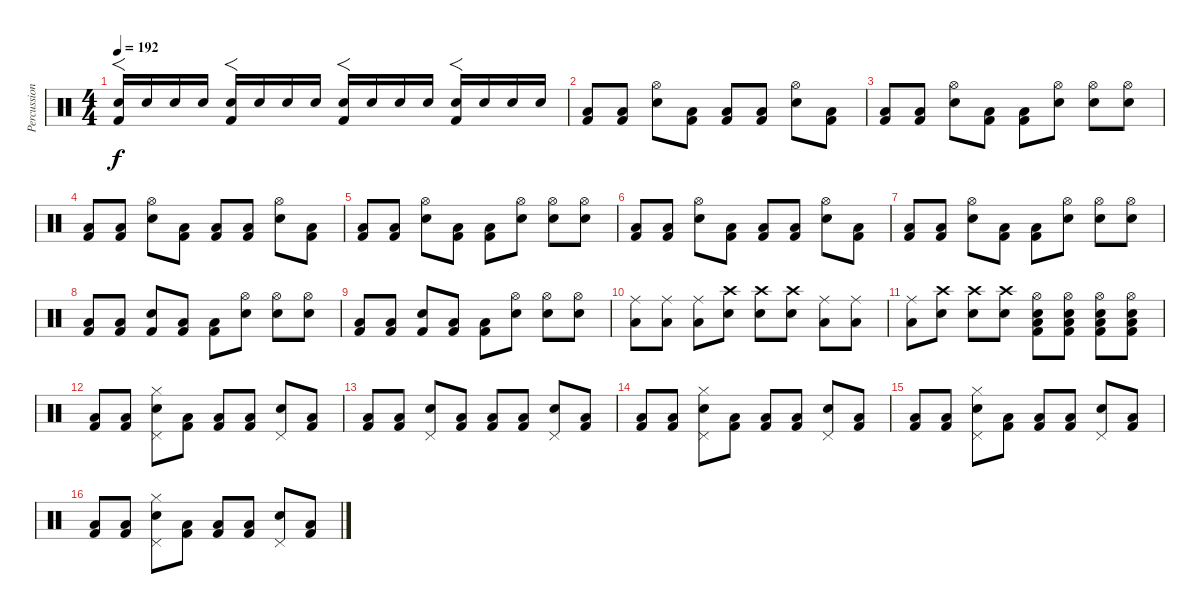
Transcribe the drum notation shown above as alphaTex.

\track ("Percussions" "Percussion") {instrument percussion}
\staff {score}
\articulation defaults
\ts (4 4)
\tempo 192
\clef neutral
\ks c
("Snare (hit) 2" "Kick (hit) 2").16{f dy f} "Snare (hit) 2".16 "Snare (hit) 2".16 "Snare (hit) 2".16 ("Snare (hit) 2" "Kick (hit) 2").16{f} "Snare (hit) 2".16 "Snare (hit) 2".16 "Snare (hit) 2".16 ("Snare (hit) 2" "Kick (hit) 2").16{f} "Snare (hit) 2".16 "Snare (hit) 2".16 "Snare (hit) 2".16 ("Snare (hit) 2" "Kick (hit) 2").16{f} "Snare (hit) 2".16 "Snare (hit) 2".16 "Snare (hit) 2".16 |
("Low Floor Tom (hit)" "Kick (hit) 2").8 ("Low Floor Tom (hit)" "Kick (hit) 2").8 ("Snare (hit) 2" "Hi-Hat (open)").8 ("Low Floor Tom (hit)" "Kick (hit) 2").8 ("Low Floor Tom (hit)" "Kick (hit) 2").8 ("Low Floor Tom (hit)" "Kick (hit) 2").8 ("Snare (hit) 2" "Hi-Hat (open)").8 ("Low Floor Tom (hit)" "Kick (hit) 2").8 |
("Low Floor Tom (hit)" "Kick (hit) 2").8 ("Low Floor Tom (hit)" "Kick (hit) 2").8 ("Snare (hit) 2" "Hi-Hat (open)").8 ("Low Floor Tom (hit)" "Kick (hit) 2").8 ("Low Floor Tom (hit)" "Kick (hit) 2").8 ("Snare (hit) 2" "Hi-Hat (open)").8 ("Snare (hit) 2" "Hi-Hat (open)").8 ("Snare (hit) 2" "Hi-Hat (open)").8 |
("Low Floor Tom (hit)" "Kick (hit) 2").8 ("Low Floor Tom (hit)" "Kick (hit) 2").8 ("Snare (hit) 2" "Hi-Hat (open)").8 ("Low Floor Tom (hit)" "Kick (hit) 2").8 ("Low Floor Tom (hit)" "Kick (hit) 2").8 ("Low Floor Tom (hit)" "Kick (hit) 2").8 ("Snare (hit) 2" "Hi-Hat (open)").8 ("Low Floor Tom (hit)" "Kick (hit) 2").8 |
("Low Floor Tom (hit)" "Kick (hit) 2").8 ("Low Floor Tom (hit)" "Kick (hit) 2").8 ("Snare (hit) 2" "Hi-Hat (open)").8 ("Low Floor Tom (hit)" "Kick (hit) 2").8 ("Low Floor Tom (hit)" "Kick (hit) 2").8 ("Snare (hit) 2" "Hi-Hat (open)").8 ("Snare (hit) 2" "Hi-Hat (open)").8 ("Snare (hit) 2" "Hi-Hat (open)").8 |
("Low Floor Tom (hit)" "Kick (hit) 2").8 ("Low Floor Tom (hit)" "Kick (hit) 2").8 ("Snare (hit) 2" "Hi-Hat (open)").8 ("Low Floor Tom (hit)" "Kick (hit) 2").8 ("Low Floor Tom (hit)" "Kick (hit) 2").8 ("Low Floor Tom (hit)" "Kick (hit) 2").8 ("Snare (hit) 2" "Hi-Hat (open)").8 ("Low Floor Tom (hit)" "Kick (hit) 2").8 |
("Low Floor Tom (hit)" "Kick (hit) 2").8 ("Low Floor Tom (hit)" "Kick (hit) 2").8 ("Snare (hit) 2" "Hi-Hat (open)").8 ("Low Floor Tom (hit)" "Kick (hit) 2").8 ("Low Floor Tom (hit)" "Kick (hit) 2").8 ("Snare (hit) 2" "Hi-Hat (open)").8 ("Snare (hit) 2" "Hi-Hat (open)").8 ("Snare (hit) 2" "Hi-Hat (open)").8 |
("Low Floor Tom (hit)" "Kick (hit) 2").8 ("Low Floor Tom (hit)" "Kick (hit) 2").8 ("Snare (hit) 2" "Kick (hit) 2").8 ("Low Floor Tom (hit)" "Kick (hit) 2").8 ("Low Floor Tom (hit)" "Kick (hit) 2").8 ("Snare (hit) 2" "Hi-Hat (open)").8 ("Snare (hit) 2" "Hi-Hat (open)").8 ("Snare (hit) 2" "Hi-Hat (open)").8 |
("Low Floor Tom (hit)" "Kick (hit) 2").8 ("Low Floor Tom (hit)" "Kick (hit) 2").8 ("Snare (hit) 2" "Kick (hit) 2").8 ("Low Floor Tom (hit)" "Kick (hit) 2").8 ("Low Floor Tom (hit)" "Kick (hit) 2").8 ("Snare (hit) 2" "Hi-Hat (open)").8 ("Snare (hit) 2" "Hi-Hat (open)").8 ("Snare (hit) 2" "Hi-Hat (open)").8 |
("Low Floor Tom (hit)" "Ride (middle)").8 ("Low Floor Tom (hit)" "Ride (middle)").8 ("Low Floor Tom (hit)" "Ride (middle)").8 ("Snare (hit) 2" "Crash high (hit)").8 ("Snare (hit) 2" "Crash high (hit)").8 ("Snare (hit) 2" "Crash high (hit)").8 ("Low Floor Tom (hit)" "Ride (middle)").8 ("Low Floor Tom (hit)" "Ride (middle)").8 |
("Low Floor Tom (hit)" "Ride (middle)").8 ("Snare (hit) 2" "Crash high (hit)").8 ("Snare (hit) 2" "Crash high (hit)").8 ("Snare (hit) 2" "Crash high (hit)").8 ("Snare (hit) 2" "Hi-Hat (open)" "Low Floor Tom (hit)" "Kick (hit) 2").8 ("Snare (hit) 2" "Hi-Hat (open)" "Low Floor Tom (hit)" "Kick (hit) 2").8 ("Snare (hit) 2" "Hi-Hat (open)" "Low Floor Tom (hit)" "Kick (hit) 2").8 ("Snare (hit) 2" "Hi-Hat (open)" "Low Floor Tom (hit)" "Kick (hit) 2").8 |
("Low Floor Tom (hit)" "Kick (hit) 2").8 ("Low Floor Tom (hit)" "Kick (hit) 2").8 ("Snare (hit) 2" "Pedal Hi-Hat (hit)" "Hi-Hat (closed)").8 ("Low Floor Tom (hit)" "Kick (hit) 2").8 ("Low Floor Tom (hit)" "Kick (hit) 2").8 ("Low Floor Tom (hit)" "Kick (hit) 2").8 ("Snare (hit) 2" "Pedal Hi-Hat (hit)").8 ("Low Floor Tom (hit)" "Kick (hit) 2").8 |
("Low Floor Tom (hit)" "Kick (hit) 2").8 ("Low Floor Tom (hit)" "Kick (hit) 2").8 ("Snare (hit) 2" "Pedal Hi-Hat (hit)").8 ("Low Floor Tom (hit)" "Kick (hit) 2").8 ("Low Floor Tom (hit)" "Kick (hit) 2").8 ("Low Floor Tom (hit)" "Kick (hit) 2").8 ("Snare (hit) 2" "Pedal Hi-Hat (hit)").8 ("Low Floor Tom (hit)" "Kick (hit) 2").8 |
("Low Floor Tom (hit)" "Kick (hit) 2").8 ("Low Floor Tom (hit)" "Kick (hit) 2").8 ("Snare (hit) 2" "Pedal Hi-Hat (hit)" "Hi-Hat (closed)").8 ("Low Floor Tom (hit)" "Kick (hit) 2").8 ("Low Floor Tom (hit)" "Kick (hit) 2").8 ("Low Floor Tom (hit)" "Kick (hit) 2").8 ("Snare (hit) 2" "Pedal Hi-Hat (hit)").8 ("Low Floor Tom (hit)" "Kick (hit) 2").8 |
("Low Floor Tom (hit)" "Kick (hit) 2").8 ("Low Floor Tom (hit)" "Kick (hit) 2").8 ("Snare (hit) 2" "Pedal Hi-Hat (hit)" "Hi-Hat (closed)").8 ("Low Floor Tom (hit)" "Kick (hit) 2").8 ("Low Floor Tom (hit)" "Kick (hit) 2").8 ("Low Floor Tom (hit)" "Kick (hit) 2").8 ("Snare (hit) 2" "Pedal Hi-Hat (hit)").8 ("Low Floor Tom (hit)" "Kick (hit) 2").8 |
("Low Floor Tom (hit)" "Kick (hit) 2").8 ("Low Floor Tom (hit)" "Kick (hit) 2").8 ("Snare (hit) 2" "Pedal Hi-Hat (hit)" "Hi-Hat (closed)").8 ("Low Floor Tom (hit)" "Kick (hit) 2").8 ("Low Floor Tom (hit)" "Kick (hit) 2").8 ("Low Floor Tom (hit)" "Kick (hit) 2").8 ("Snare (hit) 2" "Pedal Hi-Hat (hit)").8 ("Low Floor Tom (hit)" "Kick (hit) 2").8
